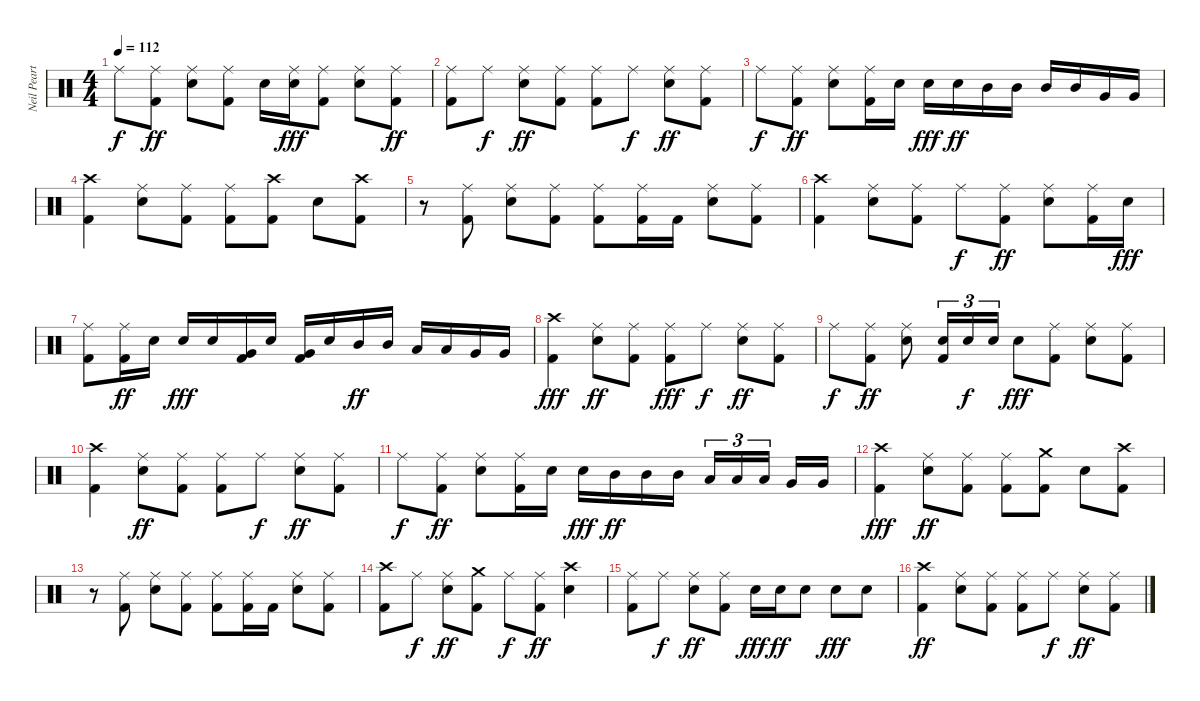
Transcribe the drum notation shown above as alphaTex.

\track ("Neil Peart" "Neil Peart") {instrument percussion}
\staff {score}
\articulation defaults
\ts (4 4)
\tempo 112
\clef neutral
\ks c "Ride (middle)".8{dy f}
("Ride (middle)" "Kick (hit) 2").8{dy ff} ("Ride (middle)" "Snare (hit) 2").8 ("Kick (hit) 2" "Ride (middle)").8 "Snare (hit) 2".16 ("Snare (hit) 2" "Ride (middle)").16{dy fff} ("Kick (hit) 2" "Ride (middle)").8 ("Snare (hit) 2" "Ride (middle)").8 ("Kick (hit) 2" "Ride (middle)").8{dy ff} |
("Ride (middle)" "Kick (hit) 2").8 "Ride (middle)".8{dy f} ("Ride (middle)" "Snare (hit) 2").8{dy ff} ("Ride (middle)" "Kick (hit) 2").8 ("Ride (middle)" "Kick (hit) 2").8 "Ride (middle)".8{dy f} ("Ride (middle)" "Snare (hit) 2").8{dy ff} ("Ride (middle)" "Kick (hit) 2").8 |
"Ride (middle)".8{dy f} ("Ride (middle)" "Kick (hit) 2").8{dy ff} ("Ride (middle)" "Snare (hit) 2").8 ("Kick (hit) 2" "Ride (middle)").16 "Snare (hit) 2".16 "Snare (hit) 2".16{dy fff} "Snare (hit) 2".16{dy ff} "Mid Tom (hit)".16 "Mid Tom (hit)".16 "Mid Tom (hit)".16 "Mid Tom (hit)".16 "Very Low Tom (hit)".16 "Very Low Tom (hit)".16 |
("Crash high (hit)" "Kick (hit) 2").4 ("Ride (middle)" "Snare (hit) 2").8 ("Ride (middle)" "Kick (hit) 2").8 ("Ride (middle)" "Kick (hit) 2").8 ("Crash high (hit)" "Kick (hit) 2").8 "Snare (hit) 2".8 ("Crash high (hit)" "Kick (hit) 2").8 |
r.8 ("Ride (middle)" "Kick (hit) 2").8 ("Ride (middle)" "Snare (hit) 2").8 ("Ride (middle)" "Kick (hit) 2").8 ("Ride (middle)" "Kick (hit) 2").8 ("Ride (middle)" "Kick (hit) 2").16 "Kick (hit) 2".16 ("Ride (middle)" "Snare (hit) 2").8 ("Ride (middle)" "Kick (hit) 2").8 |
("Crash high (hit)" "Kick (hit) 2").4 ("Ride (middle)" "Snare (hit) 2").8 ("Ride (middle)" "Kick (hit) 2").8 "Ride (middle)".8{dy f} ("Ride (middle)" "Kick (hit) 2").8{dy ff} ("Ride (middle)" "Snare (hit) 2").8 ("Ride (middle)" "Kick (hit) 2").16 "Snare (hit) 2".16{dy fff} |
("Ride (middle)" "Kick (hit) 2").8 ("Ride (middle)" "Kick (hit) 2").16{dy ff} "Snare (hit) 2".16 "Snare (hit) 2".16{dy fff} "Snare (hit) 2".16 ("Very Low Tom (hit)" "Kick (hit) 2").16 "Snare (hit) 2".16 ("Very Low Tom (hit)" "Kick (hit) 2").16 "Snare (hit) 2".16 "Mid Tom (hit)".16{dy ff} "Mid Tom (hit)".16 "Low Tom (hit)".16 "Low Tom (hit)".16 "Very Low Tom (hit)".16 "Very Low Tom (hit)".16 |
("Crash high (hit)" "Kick (hit) 2").4{dy fff} ("Ride (middle)" "Snare (hit) 2").8{dy ff} ("Ride (middle)" "Kick (hit) 2").8 ("Ride (middle)" "Kick (hit) 2").8{dy fff} "Ride (middle)".8{dy f} ("Ride (middle)" "Snare (hit) 2").8{dy ff} ("Ride (middle)" "Kick (hit) 2").8 |
"Ride (middle)".8{dy f} ("Ride (middle)" "Kick (hit) 2").8{dy ff} ("Ride (middle)" "Snare (hit) 2").8 ("Kick (hit) 2" "Snare (hit) 2").16{tu (3 2)} "Snare (hit) 2".16{tu (3 2) dy f} "Snare (hit) 2".16{tu (3 2)} "Snare (hit) 2".8{dy fff} ("Ride (middle)" "Kick (hit) 2").8 ("Ride (middle)" "Snare (hit) 2").8 ("Ride (middle)" "Kick (hit) 2").8 |
("Crash high (hit)" "Kick (hit) 2").4 ("Ride (middle)" "Snare (hit) 2").8{dy ff} ("Ride (middle)" "Kick (hit) 2").8 ("Ride (middle)" "Kick (hit) 2").8 "Ride (middle)".8{dy f} ("Ride (middle)" "Snare (hit) 2").8{dy ff} ("Ride (middle)" "Kick (hit) 2").8 |
"Ride (middle)".8{dy f} ("Ride (middle)" "Kick (hit) 2").8{dy ff} ("Ride (middle)" "Snare (hit) 2").8 ("Ride (middle)" "Kick (hit) 2").16 "Snare (hit) 2".16 "Snare (hit) 2".16{dy fff} "Mid Tom (hit)".16{dy ff} "Mid Tom (hit)".16 "Mid Tom (hit)".16 "Low Tom (hit)".16{tu (3 2)} "Low Tom (hit)".16{tu (3 2)} "Low Tom (hit)".16{tu (3 2)} "Very Low Tom (hit)".16 "Very Low Tom (hit)".16 |
("Crash high (hit)" "Kick (hit) 2").4{dy fff} ("Ride (middle)" "Snare (hit) 2").8{dy ff} ("Ride (middle)" "Kick (hit) 2").8 ("Ride (middle)" "Kick (hit) 2").8 ("Kick (hit) 2" "Crash medium (hit)").8 "Snare (hit) 2".8 ("Kick (hit) 2" "Crash high (hit)").8 |
r.8 ("Ride (middle)" "Kick (hit) 2").8 ("Ride (middle)" "Snare (hit) 2").8 ("Ride (middle)" "Kick (hit) 2").8 ("Ride (middle)" "Kick (hit) 2").8 ("Ride (middle)" "Kick (hit) 2").16 "Kick (hit) 2".16 ("Ride (middle)" "Snare (hit) 2").8 ("Ride (middle)" "Kick (hit) 2").8 |
("Crash high (hit)" "Kick (hit) 2").8 "Ride (middle)".8{dy f} ("Ride (middle)" "Snare (hit) 2").8{dy ff} ("Crash medium (hit)" "Kick (hit) 2").8 "Ride (middle)".8{dy f} ("Ride (middle)" "Kick (hit) 2").8{dy ff} ("Crash high (hit)" "Snare (hit) 2").4 |
("Ride (middle)" "Kick (hit) 2").8 "Ride (middle)".8{dy f} ("Ride (middle)" "Snare (hit) 2").8{dy ff} ("Ride (middle)" "Kick (hit) 2").8 "Snare (hit) 2".16{dy fff} "Snare (hit) 2".16{dy ff} "Snare (hit) 2".8 "Snare (hit) 2".8{dy fff} "Snare (hit) 2".8 |
("Crash high (hit)" "Kick (hit) 2").4{dy ff} ("Ride (middle)" "Snare (hit) 2").8 ("Ride (middle)" "Kick (hit) 2").8 ("Ride (middle)" "Kick (hit) 2").8 "Ride (middle)".8{dy f} ("Ride (middle)" "Snare (hit) 2").8{dy ff} ("Ride (middle)" "Kick (hit) 2").8
